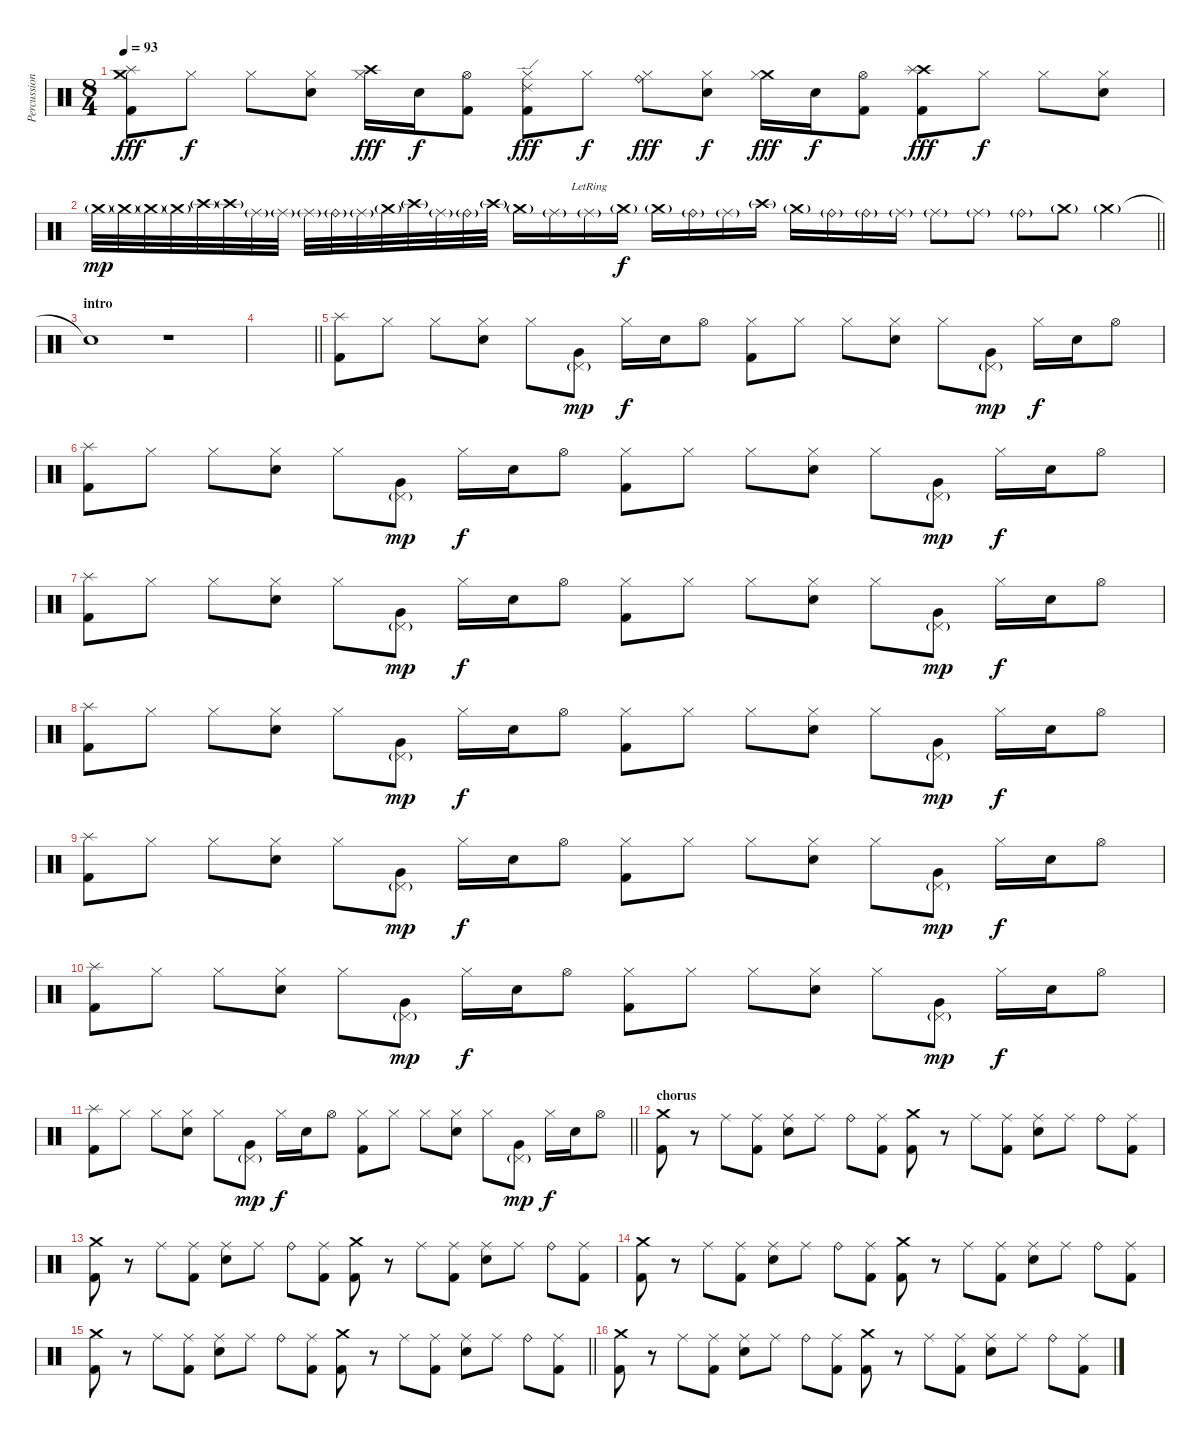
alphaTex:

\track ("Percussioni" "Percussion") {instrument percussion}
\staff {score}
\articulation defaults
\ts (8 4)
\tempo 93
\clef neutral
\ks c
("Crash medium (hit)" "Splash (hit)" "Kick (hit) 2").8{dy fff} "Hi-Hat (closed)".8{dy f} "Hi-Hat (closed)".8 ("Electric Snare (hit)" "Hi-Hat (closed)").8 ("Crash high (hit)" "Hi-Hat (closed)").16{dy fff} "Electric Snare (hit)".16{dy f} ("Kick (hit) 2" "Hi-Hat (open)").8 ("Ride (edge) 2" "Kick (hit) 2" "Hi-Hat (closed)").8{dy fff} "Hi-Hat (closed)".8{dy f} ("Ride (bell)" "Hi-Hat (closed)").8{dy fff} ("Electric Snare (hit)" "Hi-Hat (closed)").8{dy f} ("Crash medium (hit)" "Hi-Hat (closed)").16{dy fff} "Electric Snare (hit)".16{dy f} ("Kick (hit) 2" "Hi-Hat (open)").8 ("Crash high (hit)" "Splash (hit)" "Kick (hit) 2").8{dy fff} "Hi-Hat (closed)".8{dy f} "Hi-Hat (closed)".8 ("Electric Snare (hit)" "Hi-Hat (closed)").8 |
\barLineRight lightlight "Crash medium (hit)"{g}.32{dy mp} "Crash medium (hit)"{g}.32 "Crash medium (hit)"{g}.32 "Crash medium (hit)"{g}.32 "Crash high (hit)"{g}.32 "Crash high (hit)"{g}.32 "Ride (middle)"{g}.32 "Ride (middle)"{g}.32 "Ride (middle)"{g}.32 "Ride (bell)"{g}.32 "Ride (middle)"{g}.32 "Crash medium (hit)"{g}.32 "Crash high (hit)"{g}.32 "Ride (middle)"{g}.32 "Ride (bell)"{g}.32 "Crash high (hit)"{g}.32 "Crash medium (hit)"{g}.16 "Ride (middle)"{g}.16 "Ride (middle)"{g lr}.16 "Crash medium (hit)"{g}.16{dy f} "Crash medium (hit)"{g}.16 "Ride (bell)"{g}.16 "Ride (middle)"{g}.16 "Crash high (hit)"{g}.16 "Crash medium (hit)"{g}.16 "Ride (bell)"{g}.16 "Ride (bell)"{g}.16 "Ride (middle)"{g}.16 "Ride (middle)"{g}.8 "Ride (middle)"{g}.8 "Ride (bell)"{g}.8 "Crash medium (hit)"{g}.8 "Crash medium (hit)"{g}.4
|
\section ("" "intro")
"Snare (hit)"{t}.1 r.1 |
\barLineRight lightlight
|
("Splash (hit)" "Kick (hit) 2").8 "Hi-Hat (closed)".8 "Hi-Hat (closed)".8 ("Electric Snare (hit)" "Hi-Hat (closed)").8 "Hi-Hat (closed)".8 ("Very Low Tom (hit)" "Pedal Hi-Hat (hit)"{g}).8{dy mp} "Hi-Hat (closed)".16{dy f} "Electric Snare (hit)".16 "Hi-Hat (open)".8 ("Kick (hit) 2" "Hi-Hat (closed)").8 "Hi-Hat (closed)".8 "Hi-Hat (closed)".8 ("Electric Snare (hit)" "Hi-Hat (closed)").8 "Hi-Hat (closed)".8 ("Very Low Tom (hit)" "Pedal Hi-Hat (hit)"{g}).8{dy mp} "Hi-Hat (closed)".16{dy f} "Electric Snare (hit)".16 "Hi-Hat (open)".8 |
("Splash (hit)" "Kick (hit) 2").8 "Hi-Hat (closed)".8 "Hi-Hat (closed)".8 ("Electric Snare (hit)" "Hi-Hat (closed)").8 "Hi-Hat (closed)".8 ("Very Low Tom (hit)" "Pedal Hi-Hat (hit)"{g}).8{dy mp} "Hi-Hat (closed)".16{dy f} "Electric Snare (hit)".16 "Hi-Hat (open)".8 ("Kick (hit) 2" "Hi-Hat (closed)").8 "Hi-Hat (closed)".8 "Hi-Hat (closed)".8 ("Electric Snare (hit)" "Hi-Hat (closed)").8 "Hi-Hat (closed)".8 ("Very Low Tom (hit)" "Pedal Hi-Hat (hit)"{g}).8{dy mp} "Hi-Hat (closed)".16{dy f} "Electric Snare (hit)".16 "Hi-Hat (open)".8 |
("Splash (hit)" "Kick (hit) 2").8 "Hi-Hat (closed)".8 "Hi-Hat (closed)".8 ("Electric Snare (hit)" "Hi-Hat (closed)").8 "Hi-Hat (closed)".8 ("Very Low Tom (hit)" "Pedal Hi-Hat (hit)"{g}).8{dy mp} "Hi-Hat (closed)".16{dy f} "Electric Snare (hit)".16 "Hi-Hat (open)".8 ("Kick (hit) 2" "Hi-Hat (closed)").8 "Hi-Hat (closed)".8 "Hi-Hat (closed)".8 ("Electric Snare (hit)" "Hi-Hat (closed)").8 "Hi-Hat (closed)".8 ("Very Low Tom (hit)" "Pedal Hi-Hat (hit)"{g}).8{dy mp} "Hi-Hat (closed)".16{dy f} "Electric Snare (hit)".16 "Hi-Hat (open)".8 |
("Splash (hit)" "Kick (hit) 2").8 "Hi-Hat (closed)".8 "Hi-Hat (closed)".8 ("Electric Snare (hit)" "Hi-Hat (closed)").8 "Hi-Hat (closed)".8 ("Very Low Tom (hit)" "Pedal Hi-Hat (hit)"{g}).8{dy mp} "Hi-Hat (closed)".16{dy f} "Electric Snare (hit)".16 "Hi-Hat (open)".8 ("Kick (hit) 2" "Hi-Hat (closed)").8 "Hi-Hat (closed)".8 "Hi-Hat (closed)".8 ("Electric Snare (hit)" "Hi-Hat (closed)").8 "Hi-Hat (closed)".8 ("Very Low Tom (hit)" "Pedal Hi-Hat (hit)"{g}).8{dy mp} "Hi-Hat (closed)".16{dy f} "Electric Snare (hit)".16 "Hi-Hat (open)".8 |
("Splash (hit)" "Kick (hit) 2").8 "Hi-Hat (closed)".8 "Hi-Hat (closed)".8 ("Electric Snare (hit)" "Hi-Hat (closed)").8 "Hi-Hat (closed)".8 ("Very Low Tom (hit)" "Pedal Hi-Hat (hit)"{g}).8{dy mp} "Hi-Hat (closed)".16{dy f} "Electric Snare (hit)".16 "Hi-Hat (open)".8 ("Kick (hit) 2" "Hi-Hat (closed)").8 "Hi-Hat (closed)".8 "Hi-Hat (closed)".8 ("Electric Snare (hit)" "Hi-Hat (closed)").8 "Hi-Hat (closed)".8 ("Very Low Tom (hit)" "Pedal Hi-Hat (hit)"{g}).8{dy mp} "Hi-Hat (closed)".16{dy f} "Electric Snare (hit)".16 "Hi-Hat (open)".8 |
("Splash (hit)" "Kick (hit) 2").8 "Hi-Hat (closed)".8 "Hi-Hat (closed)".8 ("Electric Snare (hit)" "Hi-Hat (closed)").8 "Hi-Hat (closed)".8 ("Very Low Tom (hit)" "Pedal Hi-Hat (hit)"{g}).8{dy mp} "Hi-Hat (closed)".16{dy f} "Electric Snare (hit)".16 "Hi-Hat (open)".8 ("Kick (hit) 2" "Hi-Hat (closed)").8 "Hi-Hat (closed)".8 "Hi-Hat (closed)".8 ("Electric Snare (hit)" "Hi-Hat (closed)").8 "Hi-Hat (closed)".8 ("Very Low Tom (hit)" "Pedal Hi-Hat (hit)"{g}).8{dy mp} "Hi-Hat (closed)".16{dy f} "Electric Snare (hit)".16 "Hi-Hat (open)".8 |
\barLineRight lightlight
("Splash (hit)" "Kick (hit) 2").8 "Hi-Hat (closed)".8 "Hi-Hat (closed)".8 ("Electric Snare (hit)" "Hi-Hat (closed)").8 "Hi-Hat (closed)".8 ("Very Low Tom (hit)" "Pedal Hi-Hat (hit)"{g}).8{dy mp} "Hi-Hat (closed)".16{dy f} "Electric Snare (hit)".16 "Hi-Hat (open)".8 ("Kick (hit) 2" "Hi-Hat (closed)").8 "Hi-Hat (closed)".8 "Hi-Hat (closed)".8 ("Electric Snare (hit)" "Hi-Hat (closed)").8 "Hi-Hat (closed)".8 ("Very Low Tom (hit)" "Pedal Hi-Hat (hit)"{g}).8{dy mp} "Hi-Hat (closed)".16{dy f} "Electric Snare (hit)".16 "Hi-Hat (open)".8 |
\section ("" "chorus")
("Kick (hit) 2" "Crash medium (hit)").8 r.8 "Ride (middle)".8 ("Kick (hit) 2" "Ride (middle)").8 ("Electric Snare (hit)" "Ride (middle)").8 "Ride (middle)".8 "Ride (bell)".8 ("Kick (hit) 2" "Ride (middle)").8 ("Kick (hit) 2" "Crash medium (hit)").8 r.8 "Ride (middle)".8 ("Kick (hit) 2" "Ride (middle)").8 ("Electric Snare (hit)" "Ride (middle)").8 "Ride (middle)".8 "Ride (bell)".8 ("Kick (hit) 2" "Ride (middle)").8 |
("Kick (hit) 2" "Crash medium (hit)").8 r.8 "Ride (middle)".8 ("Kick (hit) 2" "Ride (middle)").8 ("Electric Snare (hit)" "Ride (middle)").8 "Ride (middle)".8 "Ride (bell)".8 ("Kick (hit) 2" "Ride (middle)").8 ("Kick (hit) 2" "Crash medium (hit)").8 r.8 "Ride (middle)".8 ("Kick (hit) 2" "Ride (middle)").8 ("Electric Snare (hit)" "Ride (middle)").8 "Ride (middle)".8 "Ride (bell)".8 ("Kick (hit) 2" "Ride (middle)").8 |
("Kick (hit) 2" "Crash medium (hit)").8 r.8 "Ride (middle)".8 ("Kick (hit) 2" "Ride (middle)").8 ("Electric Snare (hit)" "Ride (middle)").8 "Ride (middle)".8 "Ride (bell)".8 ("Kick (hit) 2" "Ride (middle)").8 ("Kick (hit) 2" "Crash medium (hit)").8 r.8 "Ride (middle)".8 ("Kick (hit) 2" "Ride (middle)").8 ("Electric Snare (hit)" "Ride (middle)").8 "Ride (middle)".8 "Ride (bell)".8 ("Kick (hit) 2" "Ride (middle)").8 |
\barLineRight lightlight
("Kick (hit) 2" "Crash medium (hit)").8 r.8 "Ride (middle)".8 ("Kick (hit) 2" "Ride (middle)").8 ("Electric Snare (hit)" "Ride (middle)").8 "Ride (middle)".8 "Ride (bell)".8 ("Kick (hit) 2" "Ride (middle)").8 ("Kick (hit) 2" "Crash medium (hit)").8 r.8 "Ride (middle)".8 ("Kick (hit) 2" "Ride (middle)").8 ("Electric Snare (hit)" "Ride (middle)").8 "Ride (middle)".8 "Ride (bell)".8 ("Kick (hit) 2" "Ride (middle)").8 |
("Kick (hit) 2" "Crash medium (hit)").8 r.8 "Ride (middle)".8 ("Kick (hit) 2" "Ride (middle)").8 ("Electric Snare (hit)" "Ride (middle)").8 "Ride (middle)".8 "Ride (bell)".8 ("Kick (hit) 2" "Ride (middle)").8 ("Kick (hit) 2" "Crash medium (hit)").8 r.8 "Ride (middle)".8 ("Kick (hit) 2" "Ride (middle)").8 ("Electric Snare (hit)" "Ride (middle)").8 "Ride (middle)".8 "Ride (bell)".8 ("Kick (hit) 2" "Ride (middle)").8
